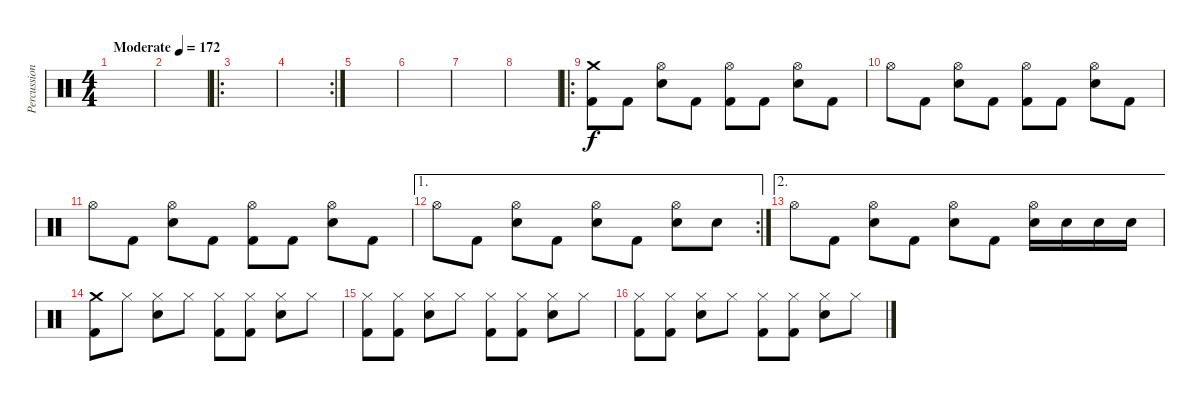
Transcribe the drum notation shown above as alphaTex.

\track ("Percussions" "Percussion") {instrument percussion}
\staff {score}
\articulation defaults
\ts (4 4)
\tempo (172 "Moderate")
\clef neutral
\ks c
|
|
\ro
|
\rc 2
|
|
|
|
|
\ro
("Crash medium (hit)" "Kick (hit) 2").8 "Kick (hit) 2".8 ("Hi-Hat (open)" "Electric Snare (hit)").8 "Kick (hit) 2".8 ("Hi-Hat (open)" "Kick (hit) 2").8 "Kick (hit) 2".8 ("Hi-Hat (open)" "Electric Snare (hit)").8 "Kick (hit) 2".8 |
"Hi-Hat (open)".8 "Kick (hit) 2".8 ("Hi-Hat (open)" "Electric Snare (hit)").8 "Kick (hit) 2".8 ("Hi-Hat (open)" "Kick (hit) 2").8 "Kick (hit) 2".8 ("Hi-Hat (open)" "Electric Snare (hit)").8 "Kick (hit) 2".8 |
"Hi-Hat (open)".8 "Kick (hit) 2".8 ("Hi-Hat (open)" "Electric Snare (hit)").8 "Kick (hit) 2".8 ("Hi-Hat (open)" "Kick (hit) 2").8 "Kick (hit) 2".8 ("Hi-Hat (open)" "Electric Snare (hit)").8 "Kick (hit) 2".8 |
\ae 1
\rc 2 "Hi-Hat (open)".8 "Kick (hit) 2".8
("Hi-Hat (open)" "Electric Snare (hit)").8 "Kick (hit) 2".8 ("Hi-Hat (open)" "Electric Snare (hit)").8 "Kick (hit) 2".8 ("Hi-Hat (open)" "Electric Snare (hit)").8 "Electric Snare (hit)".8 |
\ae 2 "Hi-Hat (open)".8 "Kick (hit) 2".8
("Hi-Hat (open)" "Electric Snare (hit)").8 "Kick (hit) 2".8 ("Hi-Hat (open)" "Electric Snare (hit)").8 "Kick (hit) 2".8 ("Hi-Hat (open)" "Electric Snare (hit)").16 "Electric Snare (hit)".16 "Electric Snare (hit)".16 "Electric Snare (hit)".16 |
("Crash medium (hit)" "Kick (hit) 2").8 "Hi-Hat (closed)".8 ("Hi-Hat (closed)" "Electric Snare (hit)").8 "Hi-Hat (closed)".8 ("Hi-Hat (closed)" "Kick (hit) 2").8 ("Hi-Hat (closed)" "Kick (hit) 2").8 ("Hi-Hat (closed)" "Electric Snare (hit)").8 "Hi-Hat (closed)".8 |
("Hi-Hat (closed)" "Kick (hit) 2").8 ("Hi-Hat (closed)" "Kick (hit) 2").8 ("Hi-Hat (closed)" "Electric Snare (hit)").8 "Hi-Hat (closed)".8 ("Hi-Hat (closed)" "Kick (hit) 2").8 ("Hi-Hat (closed)" "Kick (hit) 2").8 ("Hi-Hat (closed)" "Electric Snare (hit)").8 "Hi-Hat (closed)".8 |
("Hi-Hat (closed)" "Kick (hit) 2").8 ("Hi-Hat (closed)" "Kick (hit) 2").8 ("Hi-Hat (closed)" "Electric Snare (hit)").8 "Hi-Hat (closed)".8 ("Hi-Hat (closed)" "Kick (hit) 2").8 ("Hi-Hat (closed)" "Kick (hit) 2").8 ("Hi-Hat (closed)" "Electric Snare (hit)").8 "Hi-Hat (closed)".8
